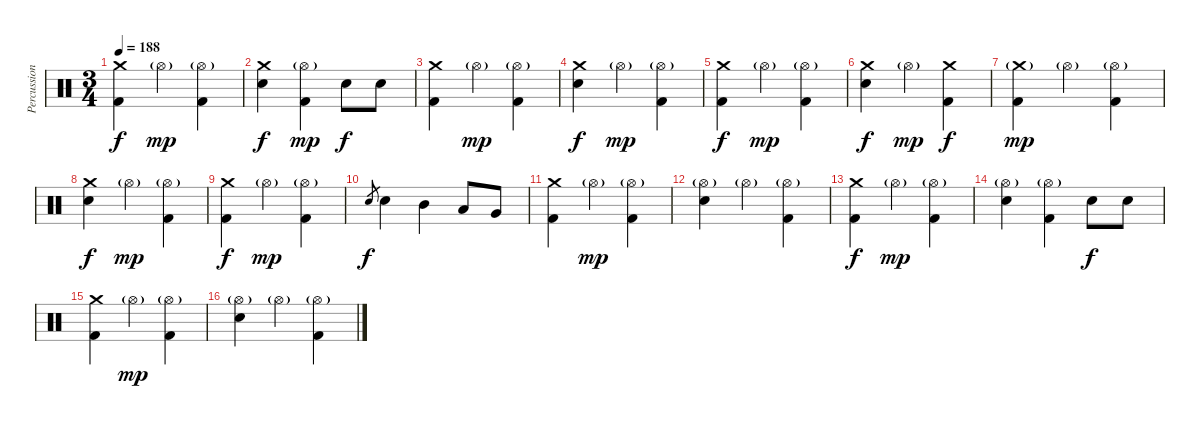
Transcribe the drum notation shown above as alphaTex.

\track ("Percussion" "Percussion") {instrument percussion}
\staff {score}
\articulation defaults
\ts (3 4)
\tempo 188
\clef neutral
\ks c
("Crash medium (hit)" "Kick (hit) 2").4{dy f} "Hi-Hat (open)"{g}.4{dy mp} ("Hi-Hat (open)"{g} "Kick (hit) 2").4 |
("Crash medium (hit)" "Electric Snare (hit)").4{dy f} ("Hi-Hat (open)"{g} "Kick (hit) 2").4{dy mp} "Electric Snare (hit)".8{dy f} "Electric Snare (hit)".8 |
("Crash medium (hit)" "Kick (hit) 2").4 "Hi-Hat (open)"{g}.4{dy mp} ("Hi-Hat (open)"{g} "Kick (hit) 2").4 |
("Crash medium (hit)" "Electric Snare (hit)").4{dy f} "Hi-Hat (open)"{g}.4{dy mp} ("Hi-Hat (open)"{g} "Kick (hit) 2").4 |
("Crash medium (hit)" "Kick (hit) 2").4{dy f} "Hi-Hat (open)"{g}.4{dy mp} ("Hi-Hat (open)"{g} "Kick (hit) 2").4 |
("Crash medium (hit)" "Electric Snare (hit)").4{dy f} "Hi-Hat (open)"{g}.4{dy mp} ("Crash medium (hit)" "Kick (hit) 2").4{dy f} |
("Crash medium (hit)"{g} "Kick (hit) 2").4{dy mp} "Hi-Hat (open)"{g}.4 ("Hi-Hat (open)"{g} "Kick (hit) 2").4 |
("Crash medium (hit)" "Electric Snare (hit)").4{dy f} "Hi-Hat (open)"{g}.4{dy mp} ("Hi-Hat (open)"{g} "Kick (hit) 2").4 |
("Crash medium (hit)" "Kick (hit) 2").4{dy f} "Hi-Hat (open)"{g}.4{dy mp} ("Hi-Hat (open)"{g} "Kick (hit) 2").4 |
"Electric Snare (hit)".8{gr dy f} "Electric Snare (hit)".4 "Mid Tom (hit)".4 "Low Tom (hit)".8 "Very Low Tom (hit)".8 |
("Crash medium (hit)" "Kick (hit) 2").4 "Hi-Hat (open)"{g}.4{dy mp} ("Hi-Hat (open)"{g} "Kick (hit) 2").4 |
("Hi-Hat (open)"{g} "Electric Snare (hit)").4 "Hi-Hat (open)"{g}.4 ("Hi-Hat (open)"{g} "Kick (hit) 2").4 |
("Crash medium (hit)" "Kick (hit) 2").4{dy f} "Hi-Hat (open)"{g}.4{dy mp} ("Hi-Hat (open)"{g} "Kick (hit) 2").4 |
("Hi-Hat (open)"{g} "Electric Snare (hit)").4 ("Hi-Hat (open)"{g} "Kick (hit) 2").4 "Electric Snare (hit)".8{dy f} "Electric Snare (hit)".8 |
("Crash medium (hit)" "Kick (hit) 2").4 "Hi-Hat (open)"{g}.4{dy mp} ("Hi-Hat (open)"{g} "Kick (hit) 2").4 |
("Hi-Hat (open)"{g} "Electric Snare (hit)").4 "Hi-Hat (open)"{g}.4 ("Hi-Hat (open)"{g} "Kick (hit) 2").4
